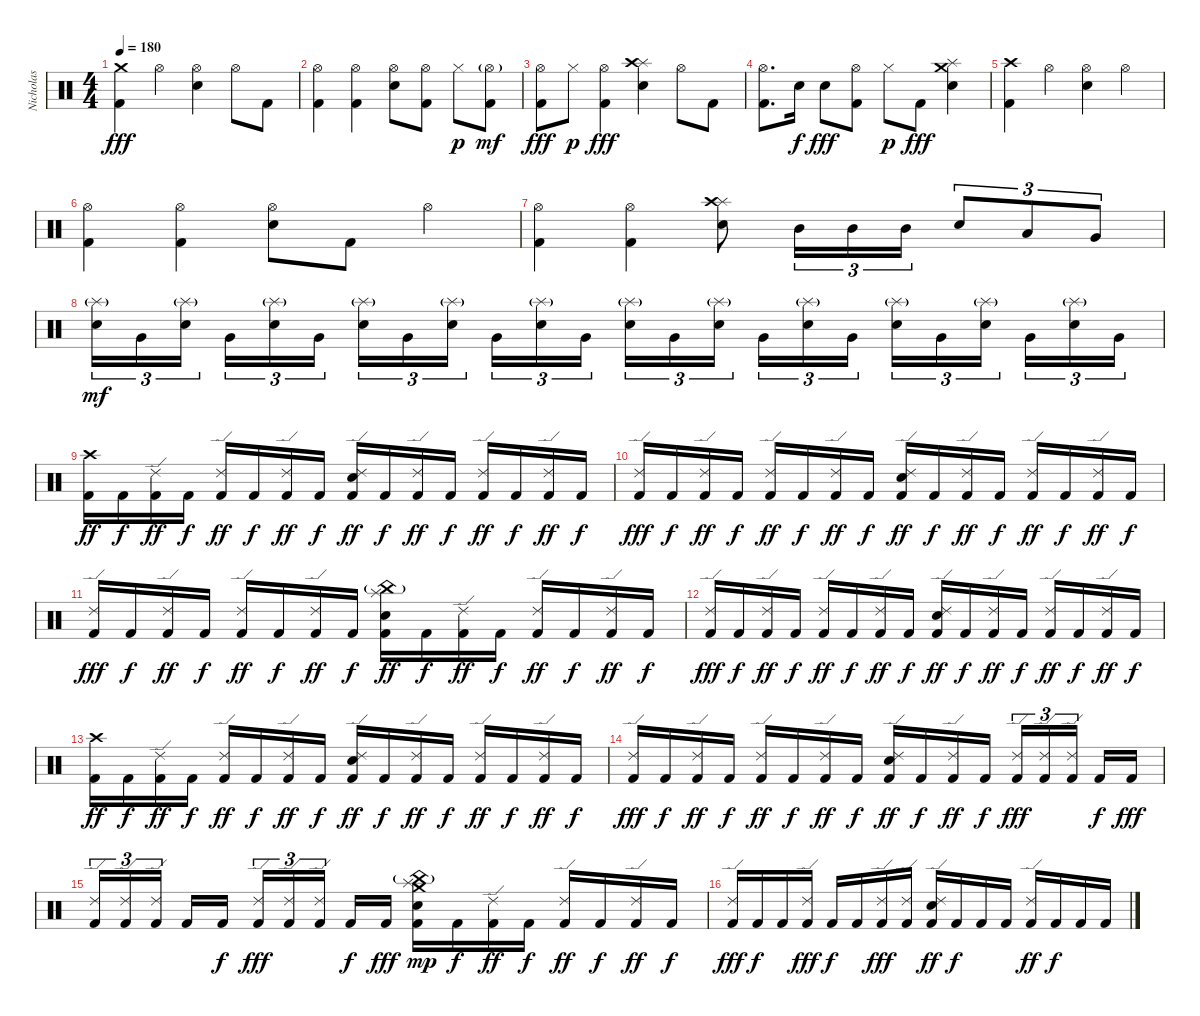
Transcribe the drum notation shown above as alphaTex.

\track ("Nicholas" "Nicholas") {instrument percussion}
\staff {score}
\articulation defaults
\ts (4 4)
\tempo 180
\clef neutral
\ks c
("Kick (hit) 2" "Crash medium (hit)").4{dy fff} "Hi-Hat (open)".4 ("Electric Snare (hit)" "Hi-Hat (open)").4 "Hi-Hat (open)".8 "Kick (hit) 2".8 |
("Kick (hit) 2" "Hi-Hat (open)").4 ("Kick (hit) 2" "Hi-Hat (open)").4 ("Electric Snare (hit)" "Hi-Hat (open)").8 ("Kick (hit) 2" "Hi-Hat (open)").8 "Hi-Hat (closed)".8{dy p} ("Kick (hit) 2" "Hi-Hat (open)"{g}).8{dy mf} |
("Kick (hit) 2" "Hi-Hat (open)").8{dy fff} "Hi-Hat (closed)".8{dy p} ("Kick (hit) 2" "Hi-Hat (open)").4{dy fff} ("Electric Snare (hit)" "Splash (hit)" "Crash high (hit)").4 "Hi-Hat (open)".8 "Kick (hit) 2".8 |
("Kick (hit) 2" "Hi-Hat (open)").8{d} "Electric Snare (hit)".16{dy f} "Electric Snare (hit)".8{dy fff} ("Kick (hit) 2" "Hi-Hat (open)").8 "Hi-Hat (closed)".8{dy p} "Kick (hit) 2".8{dy fff} ("Electric Snare (hit)" "Splash (hit)" "Crash medium (hit)").4 |
("Kick (hit) 2" "Crash high (hit)").4 "Hi-Hat (open)".4 ("Electric Snare (hit)" "Hi-Hat (open)").4 "Hi-Hat (open)".4 |
("Kick (hit) 2" "Hi-Hat (open)").4 ("Kick (hit) 2" "Hi-Hat (open)").4 ("Electric Snare (hit)" "Hi-Hat (open)").8 "Kick (hit) 2".8 "Hi-Hat (open)".4 |
("Kick (hit) 2" "Hi-Hat (open)").4 ("Kick (hit) 2" "Hi-Hat (open)").4 ("Electric Snare (hit)" "Splash (hit)" "Crash high (hit)").8 "Mid Tom (hit)".16{tu (3 2)} "Mid Tom (hit)".16{tu (3 2)} "Mid Tom (hit)".16{tu (3 2)} "Electric Snare (hit)".8{tu (3 2)} "Low Tom (hit)".8{tu (3 2)} "Very Low Tom (hit)".8{tu (3 2)} |
("Electric Snare (hit)" "Splash (hit)"{g}).16{tu (3 2) dy mf} "Very Low Tom (hit)".16{tu (3 2)} ("Electric Snare (hit)" "Splash (hit)"{g}).16{tu (3 2) beam splitsecondary} "Very Low Tom (hit)".16{tu (3 2)} ("Electric Snare (hit)" "Splash (hit)"{g}).16{tu (3 2)} "Very Low Tom (hit)".16{tu (3 2)} ("Electric Snare (hit)" "Splash (hit)"{g}).16{tu (3 2)} "Very Low Tom (hit)".16{tu (3 2)} ("Electric Snare (hit)" "Splash (hit)"{g}).16{tu (3 2) beam splitsecondary} "Very Low Tom (hit)".16{tu (3 2)} ("Electric Snare (hit)" "Splash (hit)"{g}).16{tu (3 2)} "Very Low Tom (hit)".16{tu (3 2)} ("Electric Snare (hit)" "Splash (hit)"{g}).16{tu (3 2)} "Very Low Tom (hit)".16{tu (3 2)} ("Electric Snare (hit)" "Splash (hit)"{g}).16{tu (3 2) beam splitsecondary} "Very Low Tom (hit)".16{tu (3 2)} ("Electric Snare (hit)" "Splash (hit)"{g}).16{tu (3 2)} "Very Low Tom (hit)".16{tu (3 2)} ("Electric Snare (hit)" "Splash (hit)"{g}).16{tu (3 2)} "Very Low Tom (hit)".16{tu (3 2)} ("Electric Snare (hit)" "Splash (hit)"{g}).16{tu (3 2) beam splitsecondary} "Very Low Tom (hit)".16{tu (3 2)} ("Electric Snare (hit)" "Splash (hit)"{g}).16{tu (3 2)} "Very Low Tom (hit)".16{tu (3 2)} |
("Kick (hit) 2" "Crash high (hit)").16{dy ff} "Kick (hit) 2".16{dy f} ("Kick (hit) 2" "Ride (edge) 2").16{dy ff} "Kick (hit) 2".16{dy f} ("Kick (hit) 2" "Ride (edge) 2").16{dy ff} "Kick (hit) 2".16{dy f} ("Kick (hit) 2" "Ride (edge) 2").16{dy ff} "Kick (hit) 2".16{dy f} ("Kick (hit) 2" "Electric Snare (hit)" "Ride (edge) 2").16{dy ff} "Kick (hit) 2".16{dy f} ("Kick (hit) 2" "Ride (edge) 2").16{dy ff} "Kick (hit) 2".16{dy f} ("Kick (hit) 2" "Ride (edge) 2").16{dy ff} "Kick (hit) 2".16{dy f} ("Kick (hit) 2" "Ride (edge) 2").16{dy ff} "Kick (hit) 2".16{dy f} |
("Kick (hit) 2" "Ride (edge) 2").16{dy fff} "Kick (hit) 2".16{dy f} ("Kick (hit) 2" "Ride (edge) 2").16{dy ff} "Kick (hit) 2".16{dy f} ("Kick (hit) 2" "Ride (edge) 2").16{dy ff} "Kick (hit) 2".16{dy f} ("Kick (hit) 2" "Ride (edge) 2").16{dy ff} "Kick (hit) 2".16{dy f} ("Kick (hit) 2" "Electric Snare (hit)" "Ride (edge) 2").16{dy ff} "Kick (hit) 2".16{dy f} ("Kick (hit) 2" "Ride (edge) 2").16{dy ff} "Kick (hit) 2".16{dy f} ("Kick (hit) 2" "Ride (edge) 2").16{dy ff} "Kick (hit) 2".16{dy f} ("Kick (hit) 2" "Ride (edge) 2").16{dy ff} "Kick (hit) 2".16{dy f} |
("Kick (hit) 2" "Ride (edge) 2").16{dy fff} "Kick (hit) 2".16{dy f} ("Kick (hit) 2" "Ride (edge) 2").16{dy ff} "Kick (hit) 2".16{dy f} ("Kick (hit) 2" "Ride (edge) 2").16{dy ff} "Kick (hit) 2".16{dy f} ("Kick (hit) 2" "Ride (edge) 2").16{dy ff} "Kick (hit) 2".16{dy f} ("Kick (hit) 2" "Electric Snare (hit)" "Splash (hit)" "China (hit)"{g}).16{dy ff} "Kick (hit) 2".16{dy f} ("Kick (hit) 2" "Ride (edge) 2").16{dy ff} "Kick (hit) 2".16{dy f} ("Kick (hit) 2" "Ride (edge) 2").16{dy ff} "Kick (hit) 2".16{dy f} ("Kick (hit) 2" "Ride (edge) 2").16{dy ff} "Kick (hit) 2".16{dy f} |
("Kick (hit) 2" "Ride (edge) 2").16{dy fff} "Kick (hit) 2".16{dy f} ("Kick (hit) 2" "Ride (edge) 2").16{dy ff} "Kick (hit) 2".16{dy f} ("Kick (hit) 2" "Ride (edge) 2").16{dy ff} "Kick (hit) 2".16{dy f} ("Kick (hit) 2" "Ride (edge) 2").16{dy ff} "Kick (hit) 2".16{dy f} ("Kick (hit) 2" "Electric Snare (hit)" "Ride (edge) 2").16{dy ff} "Kick (hit) 2".16{dy f} ("Kick (hit) 2" "Ride (edge) 2").16{dy ff} "Kick (hit) 2".16{dy f} ("Kick (hit) 2" "Ride (edge) 2").16{dy ff} "Kick (hit) 2".16{dy f} ("Kick (hit) 2" "Ride (edge) 2").16{dy ff} "Kick (hit) 2".16{dy f} |
("Kick (hit) 2" "Crash high (hit)").16{dy ff} "Kick (hit) 2".16{dy f} ("Kick (hit) 2" "Ride (edge) 2").16{dy ff} "Kick (hit) 2".16{dy f} ("Kick (hit) 2" "Ride (edge) 2").16{dy ff} "Kick (hit) 2".16{dy f} ("Kick (hit) 2" "Ride (edge) 2").16{dy ff} "Kick (hit) 2".16{dy f} ("Kick (hit) 2" "Electric Snare (hit)" "Ride (edge) 2").16{dy ff} "Kick (hit) 2".16{dy f} ("Kick (hit) 2" "Ride (edge) 2").16{dy ff} "Kick (hit) 2".16{dy f} ("Kick (hit) 2" "Ride (edge) 2").16{dy ff} "Kick (hit) 2".16{dy f} ("Kick (hit) 2" "Ride (edge) 2").16{dy ff} "Kick (hit) 2".16{dy f} |
("Kick (hit) 2" "Ride (edge) 2").16{dy fff} "Kick (hit) 2".16{dy f} ("Kick (hit) 2" "Ride (edge) 2").16{dy ff} "Kick (hit) 2".16{dy f} ("Kick (hit) 2" "Ride (edge) 2").16{dy ff} "Kick (hit) 2".16{dy f} ("Kick (hit) 2" "Ride (edge) 2").16{dy ff} "Kick (hit) 2".16{dy f} ("Kick (hit) 2" "Electric Snare (hit)" "Ride (edge) 2").16{dy ff} "Kick (hit) 2".16{dy f} ("Kick (hit) 2" "Ride (edge) 2").16{dy ff} "Kick (hit) 2".16{dy f} ("Kick (hit) 2" "Ride (edge) 2").16{tu (3 2) dy fff} ("Kick (hit) 2" "Ride (edge) 2").16{tu (3 2)} ("Kick (hit) 2" "Ride (edge) 2").16{tu (3 2) beam splitsecondary} "Kick (hit) 2".16{dy f} "Kick (hit) 2".16{dy fff} |
("Kick (hit) 2" "Ride (edge) 2").16{tu (3 2)} ("Kick (hit) 2" "Ride (edge) 2").16{tu (3 2)} ("Kick (hit) 2" "Ride (edge) 2").16{tu (3 2) beam splitsecondary} "Kick (hit) 2".16 "Kick (hit) 2".16{dy f} ("Kick (hit) 2" "Ride (edge) 2").16{tu (3 2) dy fff} ("Kick (hit) 2" "Ride (edge) 2").16{tu (3 2)} ("Kick (hit) 2" "Ride (edge) 2").16{tu (3 2) beam splitsecondary} "Kick (hit) 2".16{dy f} "Kick (hit) 2".16{dy fff} ("Kick (hit) 2" "Electric Snare (hit)" "Splash (hit)" "China (hit)"{g} "Crash medium (hit)").16{dy mp} "Kick (hit) 2".16{dy f} ("Kick (hit) 2" "Ride (edge) 2").16{dy ff} "Kick (hit) 2".16{dy f} ("Kick (hit) 2" "Ride (edge) 2").16{dy ff} "Kick (hit) 2".16{dy f} ("Kick (hit) 2" "Ride (edge) 2").16{dy ff} "Kick (hit) 2".16{dy f} |
("Kick (hit) 2" "Ride (edge) 2").16{dy fff} "Kick (hit) 2".16{dy f} "Kick (hit) 2".16 ("Kick (hit) 2" "Ride (edge) 2").16{dy fff} "Kick (hit) 2".16{dy f} "Kick (hit) 2".16 ("Kick (hit) 2" "Ride (edge) 2").16{dy fff} ("Kick (hit) 2" "Ride (edge) 2").16 ("Kick (hit) 2" "Electric Snare (hit)" "Ride (edge) 2").16{dy ff} "Kick (hit) 2".16{dy f} "Kick (hit) 2".16 "Kick (hit) 2".16 ("Kick (hit) 2" "Ride (edge) 2").16{dy ff} "Kick (hit) 2".16{dy f} "Kick (hit) 2".16 "Kick (hit) 2".16
